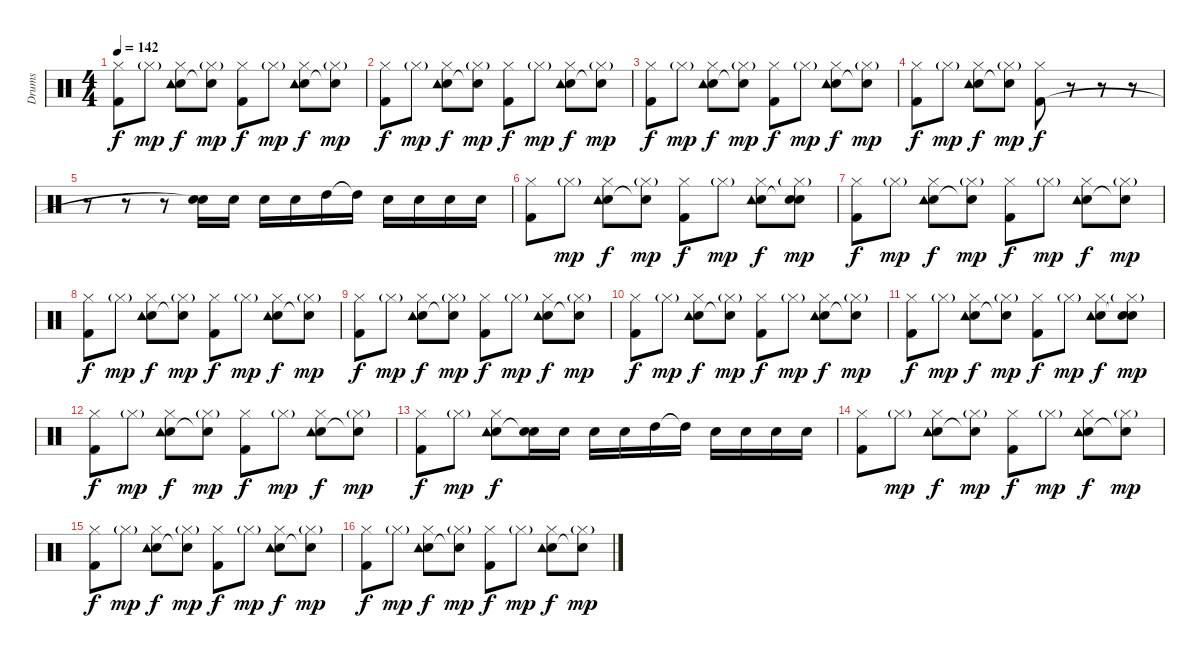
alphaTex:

\track ("Drums" "Drums") {instrument percussion}
\staff {score}
\articulation defaults
\ts (4 4)
\tempo 142
\clef neutral
\ks c
("Hi-Hat (closed)" "Kick (hit) 2").8{dy f} "Hi-Hat (closed)"{g}.8{dy mp} ("Hi-Hat (closed)" "Snare (hit) 2" "Tambourine (hit)").8{dy f} ("Hi-Hat (closed)"{g} "Snare (hit)"{t}).8{dy mp} ("Hi-Hat (closed)" "Kick (hit) 2").8{dy f} "Hi-Hat (closed)"{g}.8{dy mp} ("Hi-Hat (closed)" "Snare (hit) 2" "Tambourine (hit)").8{dy f} ("Hi-Hat (closed)"{g} "Snare (hit)"{t}).8{dy mp} |
("Hi-Hat (closed)" "Kick (hit) 2").8{dy f} "Hi-Hat (closed)"{g}.8{dy mp} ("Hi-Hat (closed)" "Snare (hit) 2" "Tambourine (hit)").8{dy f} ("Hi-Hat (closed)"{g} "Snare (hit)"{t}).8{dy mp} ("Hi-Hat (closed)" "Kick (hit) 2").8{dy f} "Hi-Hat (closed)"{g}.8{dy mp} ("Hi-Hat (closed)" "Snare (hit) 2" "Tambourine (hit)").8{dy f} ("Hi-Hat (closed)"{g} "Snare (hit)"{t}).8{dy mp} |
("Hi-Hat (closed)" "Kick (hit) 2").8{dy f} "Hi-Hat (closed)"{g}.8{dy mp} ("Hi-Hat (closed)" "Snare (hit) 2" "Tambourine (hit)").8{dy f} ("Hi-Hat (closed)"{g} "Snare (hit)"{t}).8{dy mp} ("Hi-Hat (closed)" "Kick (hit) 2").8{dy f} "Hi-Hat (closed)"{g}.8{dy mp} ("Hi-Hat (closed)" "Snare (hit) 2" "Tambourine (hit)").8{dy f} ("Hi-Hat (closed)"{g} "Snare (hit)"{t}).8{dy mp} |
("Hi-Hat (closed)" "Kick (hit) 2").8{dy f} "Hi-Hat (closed)"{g}.8{dy mp} ("Hi-Hat (closed)" "Snare (hit) 2" "Tambourine (hit)").8{dy f} ("Hi-Hat (closed)"{g} "Snare (hit)"{t}).8{dy mp} ("Hi-Hat (closed)" "Kick (hit) 2").8{dy f} r.8 r.8 r.8 |
r.8 r.8 r.8 ("Snare (hit) 2" "Snare (hit)"{t}).16 "Snare (hit) 2".16 "Snare (hit) 2".16 "Snare (hit) 2".16 "High Tom (hit)".16 "High Tom (hit)"{t}.16 "Snare (hit) 2".16 "Snare (hit) 2".16 "Snare (hit) 2".16 "Snare (hit) 2".16 |
("Hi-Hat (closed)" "Kick (hit) 2").8 "Hi-Hat (closed)"{g}.8{dy mp} ("Hi-Hat (closed)" "Snare (hit) 2" "Tambourine (hit)").8{dy f} ("Hi-Hat (closed)"{g} "Snare (hit)"{t}).8{dy mp} ("Hi-Hat (closed)" "Kick (hit) 2").8{dy f} "Hi-Hat (closed)"{g}.8{dy mp} ("Hi-Hat (closed)" "Snare (hit) 2" "Tambourine (hit)").8{dy f} ("Hi-Hat (closed)"{g} "Snare (hit) 2" "Snare (hit)"{t}).8{dy mp} |
("Hi-Hat (closed)" "Kick (hit) 2").8{dy f} "Hi-Hat (closed)"{g}.8{dy mp} ("Hi-Hat (closed)" "Snare (hit) 2" "Tambourine (hit)").8{dy f} ("Hi-Hat (closed)"{g} "Snare (hit)"{t}).8{dy mp} ("Hi-Hat (closed)" "Kick (hit) 2").8{dy f} "Hi-Hat (closed)"{g}.8{dy mp} ("Hi-Hat (closed)" "Snare (hit) 2" "Tambourine (hit)").8{dy f} ("Hi-Hat (closed)"{g} "Snare (hit)"{t}).8{dy mp} |
("Hi-Hat (closed)" "Kick (hit) 2").8{dy f} "Hi-Hat (closed)"{g}.8{dy mp} ("Hi-Hat (closed)" "Snare (hit) 2" "Tambourine (hit)").8{dy f} ("Hi-Hat (closed)"{g} "Snare (hit)"{t}).8{dy mp} ("Hi-Hat (closed)" "Kick (hit) 2").8{dy f} "Hi-Hat (closed)"{g}.8{dy mp} ("Hi-Hat (closed)" "Snare (hit) 2" "Tambourine (hit)").8{dy f} ("Hi-Hat (closed)"{g} "Snare (hit)"{t}).8{dy mp} |
("Hi-Hat (closed)" "Kick (hit) 2").8{dy f} "Hi-Hat (closed)"{g}.8{dy mp} ("Hi-Hat (closed)" "Snare (hit) 2" "Tambourine (hit)").8{dy f} ("Hi-Hat (closed)"{g} "Snare (hit)"{t}).8{dy mp} ("Hi-Hat (closed)" "Kick (hit) 2").8{dy f} "Hi-Hat (closed)"{g}.8{dy mp} ("Hi-Hat (closed)" "Snare (hit) 2" "Tambourine (hit)").8{dy f} ("Hi-Hat (closed)"{g} "Snare (hit)"{t}).8{dy mp} |
("Hi-Hat (closed)" "Kick (hit) 2").8{dy f} "Hi-Hat (closed)"{g}.8{dy mp} ("Hi-Hat (closed)" "Snare (hit) 2" "Tambourine (hit)").8{dy f} ("Hi-Hat (closed)"{g} "Snare (hit)"{t}).8{dy mp} ("Hi-Hat (closed)" "Kick (hit) 2").8{dy f} "Hi-Hat (closed)"{g}.8{dy mp} ("Hi-Hat (closed)" "Snare (hit) 2" "Tambourine (hit)").8{dy f} ("Hi-Hat (closed)"{g} "Snare (hit)"{t}).8{dy mp} |
("Hi-Hat (closed)" "Kick (hit) 2").8{dy f} "Hi-Hat (closed)"{g}.8{dy mp} ("Hi-Hat (closed)" "Snare (hit) 2" "Tambourine (hit)").8{dy f} ("Hi-Hat (closed)"{g} "Snare (hit)"{t}).8{dy mp} ("Hi-Hat (closed)" "Kick (hit) 2").8{dy f} "Hi-Hat (closed)"{g}.8{dy mp} ("Hi-Hat (closed)" "Snare (hit) 2" "Tambourine (hit)").8{dy f} ("Hi-Hat (closed)"{g} "Snare (hit) 2" "Snare (hit)"{t}).8{dy mp} |
("Hi-Hat (closed)" "Kick (hit) 2").8{dy f} "Hi-Hat (closed)"{g}.8{dy mp} ("Hi-Hat (closed)" "Snare (hit) 2" "Tambourine (hit)").8{dy f} ("Hi-Hat (closed)"{g} "Snare (hit)"{t}).8{dy mp} ("Hi-Hat (closed)" "Kick (hit) 2").8{dy f} "Hi-Hat (closed)"{g}.8{dy mp} ("Hi-Hat (closed)" "Snare (hit) 2" "Tambourine (hit)").8{dy f} ("Hi-Hat (closed)"{g} "Snare (hit)"{t}).8{dy mp} |
("Hi-Hat (closed)" "Kick (hit) 2").8{dy f} "Hi-Hat (closed)"{g}.8{dy mp} ("Hi-Hat (closed)" "Snare (hit) 2" "Tambourine (hit)").8{dy f} ("Snare (hit) 2" "Snare (hit)"{t}).16 "Snare (hit) 2".16 "Snare (hit) 2".16 "Snare (hit) 2".16 "High Tom (hit)".16 "High Tom (hit)"{t}.16 "Snare (hit) 2".16 "Snare (hit) 2".16 "Snare (hit) 2".16 "Snare (hit) 2".16 |
("Hi-Hat (closed)" "Kick (hit) 2").8 "Hi-Hat (closed)"{g}.8{dy mp} ("Hi-Hat (closed)" "Snare (hit) 2" "Tambourine (hit)").8{dy f} ("Hi-Hat (closed)"{g} "Snare (hit)"{t}).8{dy mp} ("Hi-Hat (closed)" "Kick (hit) 2").8{dy f} "Hi-Hat (closed)"{g}.8{dy mp} ("Hi-Hat (closed)" "Snare (hit) 2" "Tambourine (hit)").8{dy f} ("Hi-Hat (closed)"{g} "Snare (hit)"{t}).8{dy mp} |
("Hi-Hat (closed)" "Kick (hit) 2").8{dy f} "Hi-Hat (closed)"{g}.8{dy mp} ("Hi-Hat (closed)" "Snare (hit) 2" "Tambourine (hit)").8{dy f} ("Hi-Hat (closed)"{g} "Snare (hit)"{t}).8{dy mp} ("Hi-Hat (closed)" "Kick (hit) 2").8{dy f} "Hi-Hat (closed)"{g}.8{dy mp} ("Hi-Hat (closed)" "Snare (hit) 2" "Tambourine (hit)").8{dy f} ("Hi-Hat (closed)"{g} "Snare (hit)"{t}).8{dy mp} |
("Hi-Hat (closed)" "Kick (hit) 2").8{dy f} "Hi-Hat (closed)"{g}.8{dy mp} ("Hi-Hat (closed)" "Snare (hit) 2" "Tambourine (hit)").8{dy f} ("Hi-Hat (closed)"{g} "Snare (hit)"{t}).8{dy mp} ("Hi-Hat (closed)" "Kick (hit) 2").8{dy f} "Hi-Hat (closed)"{g}.8{dy mp} ("Hi-Hat (closed)" "Snare (hit) 2" "Tambourine (hit)").8{dy f} ("Hi-Hat (closed)"{g} "Snare (hit)"{t}).8{dy mp}
